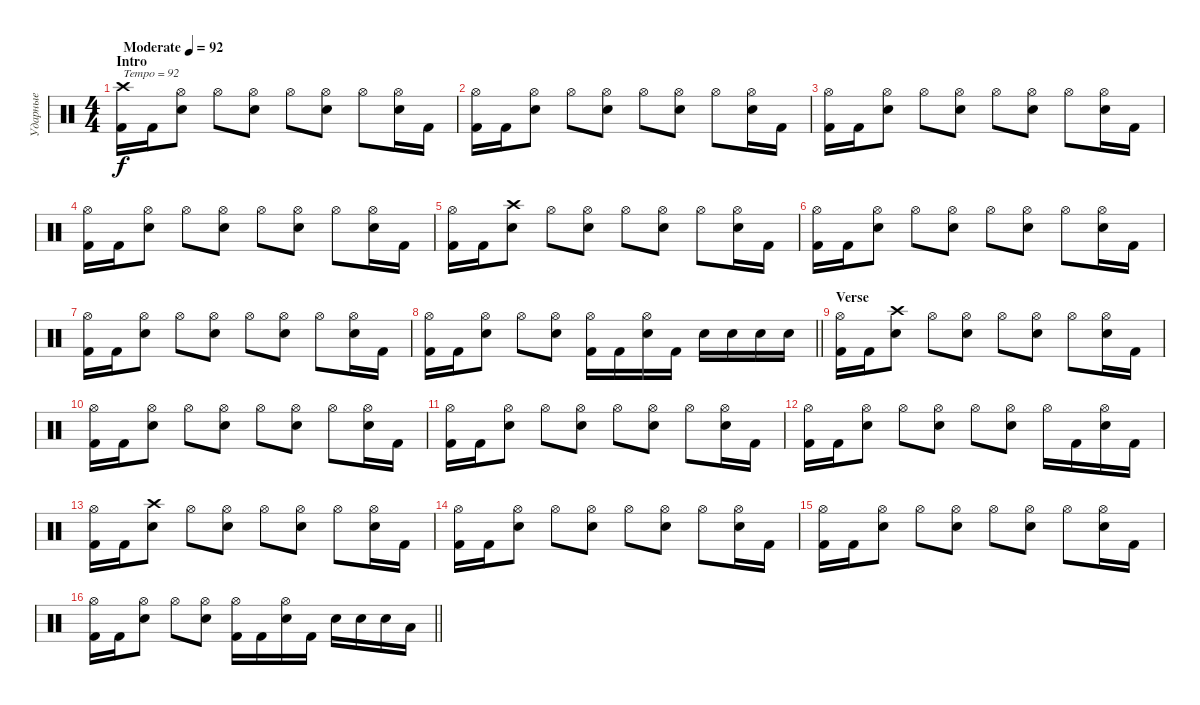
\track ("Ударные" "Ударные") {instrument percussion}
\staff {score}
\articulation defaults
\ts (4 4)
\section ("" "Intro")
\tempo (92 "Moderate")
\clef neutral
\ks c
("Crash high (hit)" "Kick (hit) 2").16{txt "Tempo = 92" dy f} "Kick (hit) 2".16 ("Hi-Hat (open)" "Electric Snare (hit)").8 "Hi-Hat (open)".8 ("Hi-Hat (open)" "Electric Snare (hit)").8 "Hi-Hat (open)".8 ("Hi-Hat (open)" "Electric Snare (hit)").8 "Hi-Hat (open)".8 ("Hi-Hat (open)" "Electric Snare (hit)").16 "Kick (hit) 2".16 |
("Hi-Hat (open)" "Kick (hit) 2").16 "Kick (hit) 2".16 ("Hi-Hat (open)" "Electric Snare (hit)").8 "Hi-Hat (open)".8 ("Hi-Hat (open)" "Electric Snare (hit)").8 "Hi-Hat (open)".8 ("Hi-Hat (open)" "Electric Snare (hit)").8 "Hi-Hat (open)".8 ("Hi-Hat (open)" "Electric Snare (hit)").16 "Kick (hit) 2".16 |
("Hi-Hat (open)" "Kick (hit) 2").16 "Kick (hit) 2".16 ("Hi-Hat (open)" "Electric Snare (hit)").8 "Hi-Hat (open)".8 ("Hi-Hat (open)" "Electric Snare (hit)").8 "Hi-Hat (open)".8 ("Hi-Hat (open)" "Electric Snare (hit)").8 "Hi-Hat (open)".8 ("Hi-Hat (open)" "Electric Snare (hit)").16 "Kick (hit) 2".16 |
("Hi-Hat (open)" "Kick (hit) 2").16 "Kick (hit) 2".16 ("Hi-Hat (open)" "Electric Snare (hit)").8 "Hi-Hat (open)".8 ("Hi-Hat (open)" "Electric Snare (hit)").8 "Hi-Hat (open)".8 ("Hi-Hat (open)" "Electric Snare (hit)").8 "Hi-Hat (open)".8 ("Hi-Hat (open)" "Electric Snare (hit)").16 "Kick (hit) 2".16 |
("Hi-Hat (open)" "Kick (hit) 2").16 "Kick (hit) 2".16 ("Crash high (hit)" "Electric Snare (hit)").8 "Hi-Hat (open)".8 ("Hi-Hat (open)" "Electric Snare (hit)").8 "Hi-Hat (open)".8 ("Hi-Hat (open)" "Electric Snare (hit)").8 "Hi-Hat (open)".8 ("Hi-Hat (open)" "Electric Snare (hit)").16 "Kick (hit) 2".16 |
("Hi-Hat (open)" "Kick (hit) 2").16 "Kick (hit) 2".16 ("Hi-Hat (open)" "Electric Snare (hit)").8 "Hi-Hat (open)".8 ("Hi-Hat (open)" "Electric Snare (hit)").8 "Hi-Hat (open)".8 ("Hi-Hat (open)" "Electric Snare (hit)").8 "Hi-Hat (open)".8 ("Hi-Hat (open)" "Electric Snare (hit)").16 "Kick (hit) 2".16 |
("Hi-Hat (open)" "Kick (hit) 2").16 "Kick (hit) 2".16 ("Hi-Hat (open)" "Electric Snare (hit)").8 "Hi-Hat (open)".8 ("Hi-Hat (open)" "Electric Snare (hit)").8 "Hi-Hat (open)".8 ("Hi-Hat (open)" "Electric Snare (hit)").8 "Hi-Hat (open)".8 ("Hi-Hat (open)" "Electric Snare (hit)").16 "Kick (hit) 2".16 |
\barLineRight lightlight
("Hi-Hat (open)" "Kick (hit) 2").16 "Kick (hit) 2".16 ("Hi-Hat (open)" "Electric Snare (hit)").8 "Hi-Hat (open)".8 ("Hi-Hat (open)" "Electric Snare (hit)").8 ("Hi-Hat (open)" "Kick (hit) 2").16 "Kick (hit) 2".16 ("Hi-Hat (open)" "Electric Snare (hit)").16 "Kick (hit) 2".16 "Electric Snare (hit)".16 "Electric Snare (hit)".16 "Electric Snare (hit)".16 "Electric Snare (hit)".16 |
\section ("" "Verse")
("Hi-Hat (open)" "Kick (hit) 2").16 "Kick (hit) 2".16 ("Crash high (hit)" "Electric Snare (hit)").8 "Hi-Hat (open)".8 ("Hi-Hat (open)" "Electric Snare (hit)").8 "Hi-Hat (open)".8 ("Hi-Hat (open)" "Electric Snare (hit)").8 "Hi-Hat (open)".8 ("Hi-Hat (open)" "Electric Snare (hit)").16 "Kick (hit) 2".16 |
("Hi-Hat (open)" "Kick (hit) 2").16 "Kick (hit) 2".16 ("Hi-Hat (open)" "Electric Snare (hit)").8 "Hi-Hat (open)".8 ("Hi-Hat (open)" "Electric Snare (hit)").8 "Hi-Hat (open)".8 ("Hi-Hat (open)" "Electric Snare (hit)").8 "Hi-Hat (open)".8 ("Hi-Hat (open)" "Electric Snare (hit)").16 "Kick (hit) 2".16 |
("Hi-Hat (open)" "Kick (hit) 2").16 "Kick (hit) 2".16 ("Hi-Hat (open)" "Electric Snare (hit)").8 "Hi-Hat (open)".8 ("Hi-Hat (open)" "Electric Snare (hit)").8 "Hi-Hat (open)".8 ("Hi-Hat (open)" "Electric Snare (hit)").8 "Hi-Hat (open)".8 ("Hi-Hat (open)" "Electric Snare (hit)").16 "Kick (hit) 2".16 |
("Hi-Hat (open)" "Kick (hit) 2").16 "Kick (hit) 2".16 ("Hi-Hat (open)" "Electric Snare (hit)").8 "Hi-Hat (open)".8 ("Hi-Hat (open)" "Electric Snare (hit)").8 "Hi-Hat (open)".8 ("Hi-Hat (open)" "Electric Snare (hit)").8 "Hi-Hat (open)".16 "Kick (hit) 2".16 ("Hi-Hat (open)" "Electric Snare (hit)").16 "Kick (hit) 2".16 |
("Hi-Hat (open)" "Kick (hit) 2").16 "Kick (hit) 2".16 ("Crash high (hit)" "Electric Snare (hit)").8 "Hi-Hat (open)".8 ("Hi-Hat (open)" "Electric Snare (hit)").8 "Hi-Hat (open)".8 ("Hi-Hat (open)" "Electric Snare (hit)").8 "Hi-Hat (open)".8 ("Hi-Hat (open)" "Electric Snare (hit)").16 "Kick (hit) 2".16 |
("Hi-Hat (open)" "Kick (hit) 2").16 "Kick (hit) 2".16 ("Hi-Hat (open)" "Electric Snare (hit)").8 "Hi-Hat (open)".8 ("Hi-Hat (open)" "Electric Snare (hit)").8 "Hi-Hat (open)".8 ("Hi-Hat (open)" "Electric Snare (hit)").8 "Hi-Hat (open)".8 ("Hi-Hat (open)" "Electric Snare (hit)").16 "Kick (hit) 2".16 |
("Hi-Hat (open)" "Kick (hit) 2").16 "Kick (hit) 2".16 ("Hi-Hat (open)" "Electric Snare (hit)").8 "Hi-Hat (open)".8 ("Hi-Hat (open)" "Electric Snare (hit)").8 "Hi-Hat (open)".8 ("Hi-Hat (open)" "Electric Snare (hit)").8 "Hi-Hat (open)".8 ("Hi-Hat (open)" "Electric Snare (hit)").16 "Kick (hit) 2".16 |
\barLineRight lightlight
("Hi-Hat (open)" "Kick (hit) 2").16 "Kick (hit) 2".16 ("Hi-Hat (open)" "Electric Snare (hit)").8 "Hi-Hat (open)".8 ("Hi-Hat (open)" "Electric Snare (hit)").8 ("Hi-Hat (open)" "Kick (hit) 2").16 "Kick (hit) 2".16 ("Hi-Hat (open)" "Electric Snare (hit)").16 "Kick (hit) 2".16 "Electric Snare (hit)".16 "Electric Snare (hit)".16 "Electric Snare (hit)".16 "Low Tom (hit)".16
